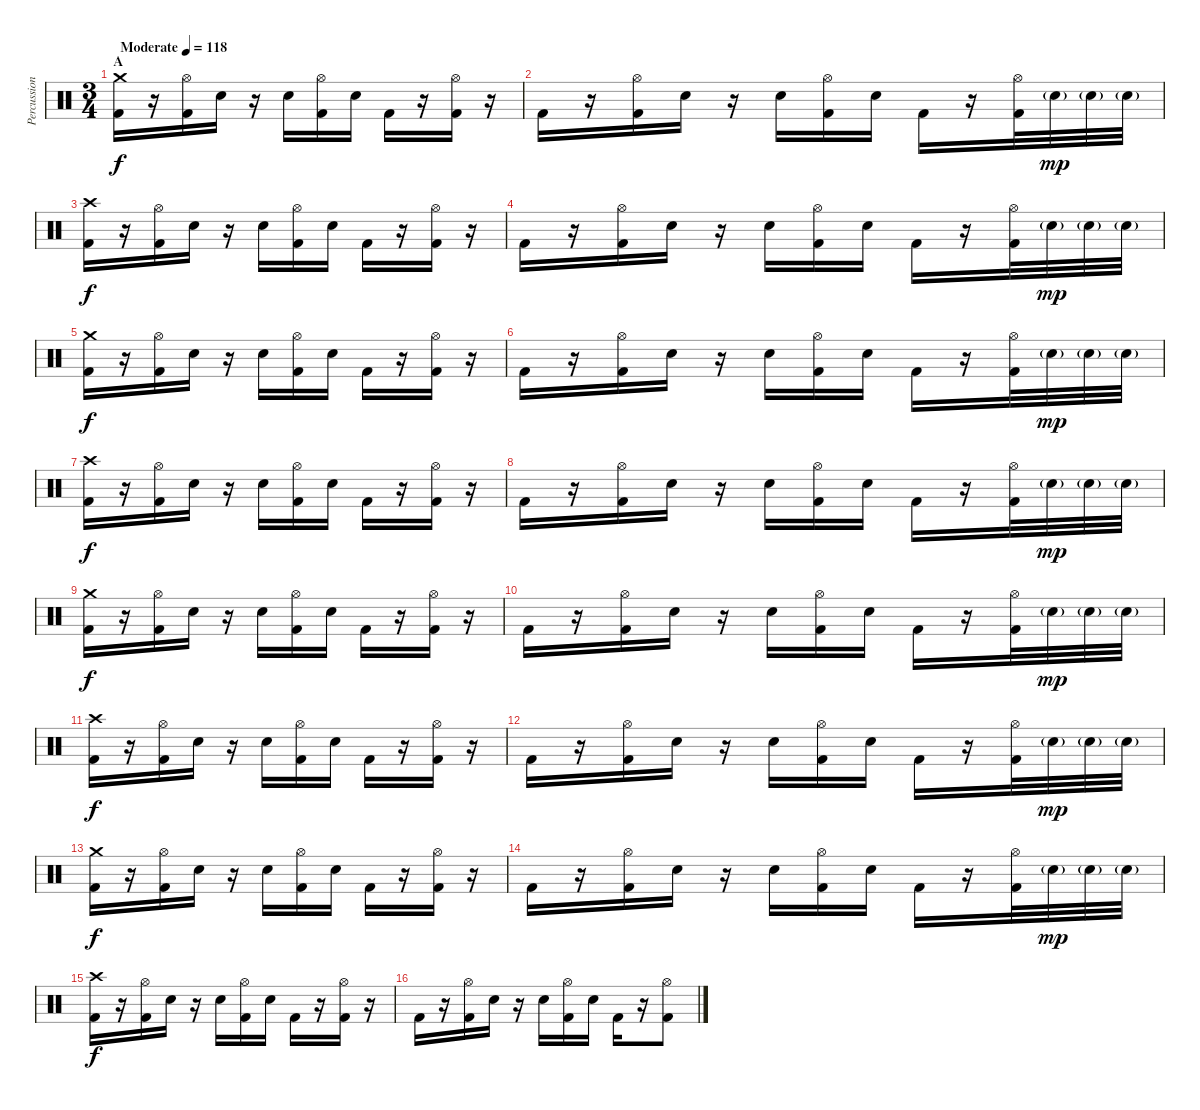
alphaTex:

\track ("Percussion" "Percussion") {instrument percussion}
\staff {score}
\articulation defaults
\ts (3 4)
\section ("" "A")
\tempo (118 "Moderate")
\clef neutral
\ks c
("Crash medium (hit)" "Kick (hit) 2").16{dy f} r.16 ("Hi-Hat (open)" "Kick (hit) 2").16 "Electric Snare (hit)".16 r.16 "Electric Snare (hit)".16 ("Hi-Hat (open)" "Kick (hit) 2").16 "Electric Snare (hit)".16 "Kick (hit) 2".16 r.16 ("Hi-Hat (open)" "Kick (hit) 2").16 r.16 |
"Kick (hit) 2".16 r.16 ("Hi-Hat (open)" "Kick (hit) 2").16 "Electric Snare (hit)".16 r.16 "Electric Snare (hit)".16 ("Hi-Hat (open)" "Kick (hit) 2").16 "Electric Snare (hit)".16 "Kick (hit) 2".16 r.16 ("Hi-Hat (open)" "Kick (hit) 2").32 "Electric Snare (hit)"{g}.32{dy mp} "Electric Snare (hit)"{g}.32 "Electric Snare (hit)"{g}.32 |
("Crash high (hit)" "Kick (hit) 2").16{dy f} r.16 ("Hi-Hat (open)" "Kick (hit) 2").16 "Electric Snare (hit)".16 r.16 "Electric Snare (hit)".16 ("Hi-Hat (open)" "Kick (hit) 2").16 "Electric Snare (hit)".16 "Kick (hit) 2".16 r.16 ("Hi-Hat (open)" "Kick (hit) 2").16 r.16 |
"Kick (hit) 2".16 r.16 ("Hi-Hat (open)" "Kick (hit) 2").16 "Electric Snare (hit)".16 r.16 "Electric Snare (hit)".16 ("Hi-Hat (open)" "Kick (hit) 2").16 "Electric Snare (hit)".16 "Kick (hit) 2".16 r.16 ("Hi-Hat (open)" "Kick (hit) 2").32 "Electric Snare (hit)"{g}.32{dy mp} "Electric Snare (hit)"{g}.32 "Electric Snare (hit)"{g}.32 |
("Crash medium (hit)" "Kick (hit) 2").16{dy f} r.16 ("Hi-Hat (open)" "Kick (hit) 2").16 "Electric Snare (hit)".16 r.16 "Electric Snare (hit)".16 ("Hi-Hat (open)" "Kick (hit) 2").16 "Electric Snare (hit)".16 "Kick (hit) 2".16 r.16 ("Hi-Hat (open)" "Kick (hit) 2").16 r.16 |
"Kick (hit) 2".16 r.16 ("Hi-Hat (open)" "Kick (hit) 2").16 "Electric Snare (hit)".16 r.16 "Electric Snare (hit)".16 ("Hi-Hat (open)" "Kick (hit) 2").16 "Electric Snare (hit)".16 "Kick (hit) 2".16 r.16 ("Hi-Hat (open)" "Kick (hit) 2").32 "Electric Snare (hit)"{g}.32{dy mp} "Electric Snare (hit)"{g}.32 "Electric Snare (hit)"{g}.32 |
("Crash high (hit)" "Kick (hit) 2").16{dy f} r.16 ("Hi-Hat (open)" "Kick (hit) 2").16 "Electric Snare (hit)".16 r.16 "Electric Snare (hit)".16 ("Hi-Hat (open)" "Kick (hit) 2").16 "Electric Snare (hit)".16 "Kick (hit) 2".16 r.16 ("Hi-Hat (open)" "Kick (hit) 2").16 r.16 |
"Kick (hit) 2".16 r.16 ("Hi-Hat (open)" "Kick (hit) 2").16 "Electric Snare (hit)".16 r.16 "Electric Snare (hit)".16 ("Hi-Hat (open)" "Kick (hit) 2").16 "Electric Snare (hit)".16 "Kick (hit) 2".16 r.16 ("Hi-Hat (open)" "Kick (hit) 2").32 "Electric Snare (hit)"{g}.32{dy mp} "Electric Snare (hit)"{g}.32 "Electric Snare (hit)"{g}.32 |
("Crash medium (hit)" "Kick (hit) 2").16{dy f} r.16 ("Hi-Hat (open)" "Kick (hit) 2").16 "Electric Snare (hit)".16 r.16 "Electric Snare (hit)".16 ("Hi-Hat (open)" "Kick (hit) 2").16 "Electric Snare (hit)".16 "Kick (hit) 2".16 r.16 ("Hi-Hat (open)" "Kick (hit) 2").16 r.16 |
"Kick (hit) 2".16 r.16 ("Hi-Hat (open)" "Kick (hit) 2").16 "Electric Snare (hit)".16 r.16 "Electric Snare (hit)".16 ("Hi-Hat (open)" "Kick (hit) 2").16 "Electric Snare (hit)".16 "Kick (hit) 2".16 r.16 ("Hi-Hat (open)" "Kick (hit) 2").32 "Electric Snare (hit)"{g}.32{dy mp} "Electric Snare (hit)"{g}.32 "Electric Snare (hit)"{g}.32 |
("Crash high (hit)" "Kick (hit) 2").16{dy f} r.16 ("Hi-Hat (open)" "Kick (hit) 2").16 "Electric Snare (hit)".16 r.16 "Electric Snare (hit)".16 ("Hi-Hat (open)" "Kick (hit) 2").16 "Electric Snare (hit)".16 "Kick (hit) 2".16 r.16 ("Hi-Hat (open)" "Kick (hit) 2").16 r.16 |
"Kick (hit) 2".16 r.16 ("Hi-Hat (open)" "Kick (hit) 2").16 "Electric Snare (hit)".16 r.16 "Electric Snare (hit)".16 ("Hi-Hat (open)" "Kick (hit) 2").16 "Electric Snare (hit)".16 "Kick (hit) 2".16 r.16 ("Hi-Hat (open)" "Kick (hit) 2").32 "Electric Snare (hit)"{g}.32{dy mp} "Electric Snare (hit)"{g}.32 "Electric Snare (hit)"{g}.32 |
("Crash medium (hit)" "Kick (hit) 2").16{dy f} r.16 ("Hi-Hat (open)" "Kick (hit) 2").16 "Electric Snare (hit)".16 r.16 "Electric Snare (hit)".16 ("Hi-Hat (open)" "Kick (hit) 2").16 "Electric Snare (hit)".16 "Kick (hit) 2".16 r.16 ("Hi-Hat (open)" "Kick (hit) 2").16 r.16 |
"Kick (hit) 2".16 r.16 ("Hi-Hat (open)" "Kick (hit) 2").16 "Electric Snare (hit)".16 r.16 "Electric Snare (hit)".16 ("Hi-Hat (open)" "Kick (hit) 2").16 "Electric Snare (hit)".16 "Kick (hit) 2".16 r.16 ("Hi-Hat (open)" "Kick (hit) 2").32 "Electric Snare (hit)"{g}.32{dy mp} "Electric Snare (hit)"{g}.32 "Electric Snare (hit)"{g}.32 |
("Crash high (hit)" "Kick (hit) 2").16{dy f} r.16 ("Hi-Hat (open)" "Kick (hit) 2").16 "Electric Snare (hit)".16 r.16 "Electric Snare (hit)".16 ("Hi-Hat (open)" "Kick (hit) 2").16 "Electric Snare (hit)".16 "Kick (hit) 2".16 r.16 ("Hi-Hat (open)" "Kick (hit) 2").16 r.16 |
"Kick (hit) 2".16 r.16 ("Hi-Hat (open)" "Kick (hit) 2").16 "Electric Snare (hit)".16 r.16 "Electric Snare (hit)".16 ("Hi-Hat (open)" "Kick (hit) 2").16 "Electric Snare (hit)".16 "Kick (hit) 2".16 r.16 ("Hi-Hat (open)" "Kick (hit) 2").8
